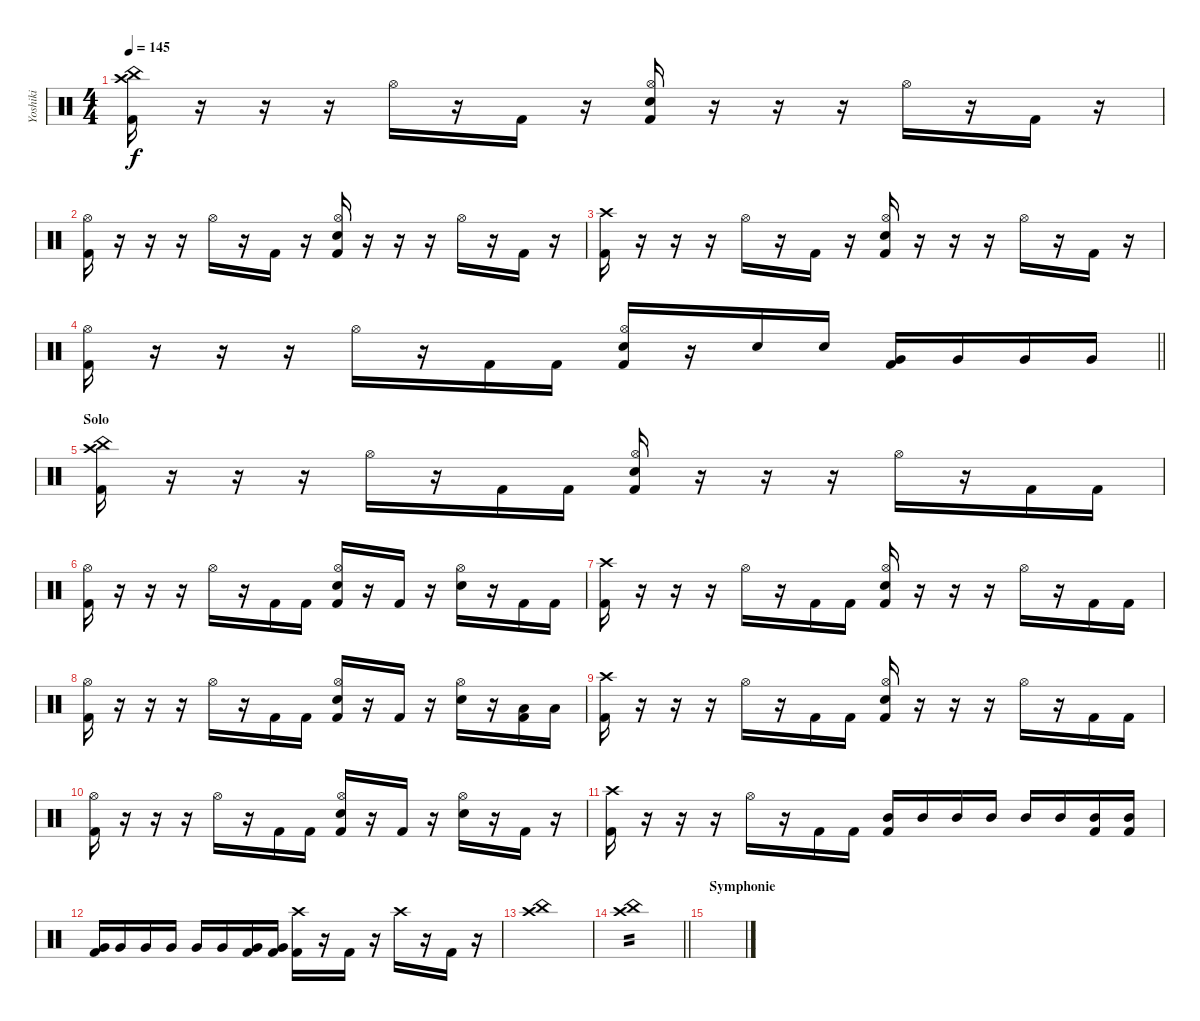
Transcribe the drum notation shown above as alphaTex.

\track ("Yoshiki" "Yoshiki") {instrument percussion}
\staff {score}
\articulation defaults
\ts (4 4)
\tempo 145
\clef neutral
\ks c
("Crash high (hit)" "China (hit)" "Kick (hit) 2").16{dy f} r.16 r.16 r.16 "Hi-Hat (open)".16 r.16 "Kick (hit) 2".16 r.16 ("Hi-Hat (open)" "Snare (hit) 2" "Kick (hit) 2").16 r.16 r.16 r.16 "Hi-Hat (open)".16 r.16 "Kick (hit) 2".16 r.16 |
("Hi-Hat (open)" "Kick (hit) 2").16 r.16 r.16 r.16 "Hi-Hat (open)".16 r.16 "Kick (hit) 2".16 r.16 ("Hi-Hat (open)" "Snare (hit) 2" "Kick (hit) 2").16 r.16 r.16 r.16 "Hi-Hat (open)".16 r.16 "Kick (hit) 2".16 r.16 |
("Crash high (hit)" "Kick (hit) 2").16 r.16 r.16 r.16 "Hi-Hat (open)".16 r.16 "Kick (hit) 2".16 r.16 ("Hi-Hat (open)" "Snare (hit) 2" "Kick (hit) 2").16 r.16 r.16 r.16 "Hi-Hat (open)".16 r.16 "Kick (hit) 2".16 r.16 |
\barLineRight lightlight
("Hi-Hat (open)" "Kick (hit) 2").16 r.16 r.16 r.16 "Hi-Hat (open)".16 r.16 "Kick (hit) 2".16 "Kick (hit) 2".16 ("Hi-Hat (open)" "Snare (hit) 2" "Kick (hit) 2").16 r.16 "Snare (hit) 2".16 "Snare (hit) 2".16 ("Very Low Tom (hit)" "Kick (hit) 2").16 "Very Low Tom (hit)".16 "Very Low Tom (hit)".16 "Very Low Tom (hit)".16 |
\section ("" "Solo")
("Crash high (hit)" "China (hit)" "Kick (hit) 2").16 r.16 r.16 r.16 "Hi-Hat (open)".16 r.16 "Kick (hit) 2".16 "Kick (hit) 2".16 ("Hi-Hat (open)" "Snare (hit) 2" "Kick (hit) 2").16 r.16 r.16 r.16 "Hi-Hat (open)".16 r.16 "Kick (hit) 2".16 "Kick (hit) 2".16 |
("Hi-Hat (open)" "Kick (hit) 2").16 r.16 r.16 r.16 "Hi-Hat (open)".16 r.16 "Kick (hit) 2".16 "Kick (hit) 2".16 ("Hi-Hat (open)" "Snare (hit) 2" "Kick (hit) 2").16 r.16 "Kick (hit) 2".16 r.16 ("Hi-Hat (open)" "Snare (hit) 2").16 r.16 "Kick (hit) 2".16 "Kick (hit) 2".16 |
("Crash high (hit)" "Kick (hit) 2").16 r.16 r.16 r.16 "Hi-Hat (open)".16 r.16 "Kick (hit) 2".16 "Kick (hit) 2".16 ("Hi-Hat (open)" "Snare (hit) 2" "Kick (hit) 2").16 r.16 r.16 r.16 "Hi-Hat (open)".16 r.16 "Kick (hit) 2".16 "Kick (hit) 2".16 |
("Hi-Hat (open)" "Kick (hit) 2").16 r.16 r.16 r.16 "Hi-Hat (open)".16 r.16 "Kick (hit) 2".16 "Kick (hit) 2".16 ("Hi-Hat (open)" "Snare (hit) 2" "Kick (hit) 2").16 r.16 "Kick (hit) 2".16 r.16 ("Hi-Hat (open)" "Snare (hit) 2").16 r.16 ("Low Floor Tom (hit)" "Kick (hit) 2").16 "Low Floor Tom (hit)".16 |
("Crash high (hit)" "Kick (hit) 2").16 r.16 r.16 r.16 "Hi-Hat (open)".16 r.16 "Kick (hit) 2".16 "Kick (hit) 2".16 ("Hi-Hat (open)" "Snare (hit) 2" "Kick (hit) 2").16 r.16 r.16 r.16 "Hi-Hat (open)".16 r.16 "Kick (hit) 2".16 "Kick (hit) 2".16 |
("Hi-Hat (open)" "Kick (hit) 2").16 r.16 r.16 r.16 "Hi-Hat (open)".16 r.16 "Kick (hit) 2".16 "Kick (hit) 2".16 ("Hi-Hat (open)" "Snare (hit) 2" "Kick (hit) 2").16 r.16 "Kick (hit) 2".16 r.16 ("Hi-Hat (open)" "Snare (hit) 2").16 r.16 "Kick (hit) 2".16 r.16 |
("Crash high (hit)" "Kick (hit) 2").16 r.16 r.16 r.16 "Hi-Hat (open)".16 r.16 "Kick (hit) 2".16 "Kick (hit) 2".16 ("Mid Tom (hit)" "Kick (hit) 2").16 "Mid Tom (hit)".16 "Mid Tom (hit)".16 "Mid Tom (hit)".16 "Mid Tom (hit)".16 "Mid Tom (hit)".16 ("Mid Tom (hit)" "Kick (hit) 2").16 ("Mid Tom (hit)" "Kick (hit) 2").16 |
("Very Low Tom (hit)" "Kick (hit) 2").16 "Very Low Tom (hit)".16 "Very Low Tom (hit)".16 "Very Low Tom (hit)".16 "Very Low Tom (hit)".16 "Very Low Tom (hit)".16 ("Very Low Tom (hit)" "Kick (hit) 2").16 ("Very Low Tom (hit)" "Kick (hit) 2").16 ("Crash high (hit)" "Kick (hit) 2").16 r.16 "Kick (hit) 2".16 r.16 "Crash high (hit)".16 r.16 "Kick (hit) 2".16 r.16 |
("Crash high (hit)" "China (hit)").1{volume 8} |
\barLineRight lightlight
("Crash high (hit)" "China (hit)").1{tp 2 volume 0} |
\section ("" "Symphonie")
